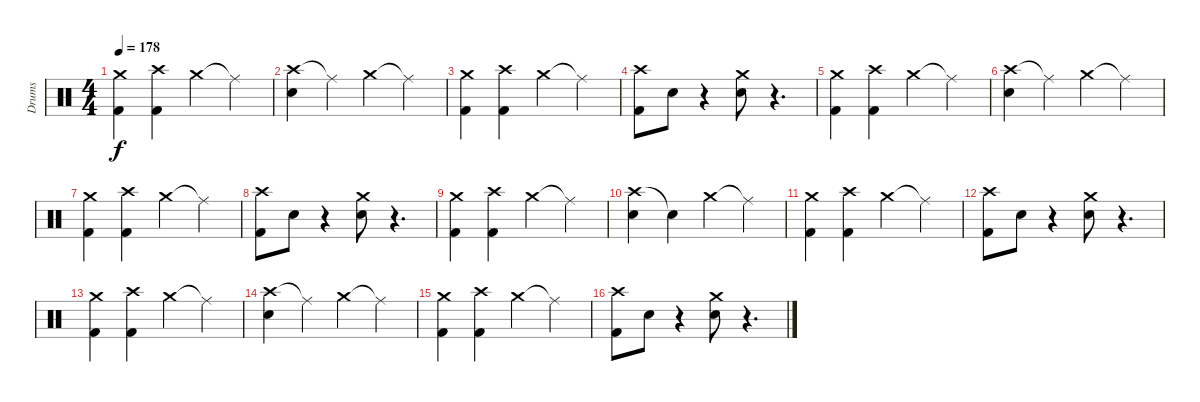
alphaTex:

\track ("Drums" "Drums") {instrument percussion}
\staff {score}
\articulation defaults
\ts (4 4)
\section ("" "")
\tempo 178
\clef neutral
\ks c
("Crash medium (hit)" "Kick (hit) 2").4{dy f} ("Crash high (hit)" "Kick (hit) 2").4 "Crash medium (hit)".4 "Ride (middle)"{t}.4 |
("Crash high (hit)" "Electric Snare (hit)").4 "Ride (middle)"{t}.4 "Crash medium (hit)".4 "Ride (middle)"{t}.4 |
("Crash medium (hit)" "Kick (hit) 2").4 ("Crash high (hit)" "Kick (hit) 2").4 "Crash medium (hit)".4 "Ride (middle)"{t}.4 |
("Crash high (hit)" "Kick (hit) 2").8 "Electric Snare (hit)".8 r.4 ("Crash medium (hit)" "Electric Snare (hit)").8 r.4{d} |
("Crash medium (hit)" "Kick (hit) 2").4 ("Crash high (hit)" "Kick (hit) 2").4 "Crash medium (hit)".4 "Ride (middle)"{t}.4 |
("Crash high (hit)" "Electric Snare (hit)").4 "Ride (middle)"{t}.4 "Crash medium (hit)".4 "Ride (middle)"{t}.4 |
("Crash medium (hit)" "Kick (hit) 2").4 ("Crash high (hit)" "Kick (hit) 2").4 "Crash medium (hit)".4 "Ride (middle)"{t}.4 |
("Crash high (hit)" "Kick (hit) 2").8 "Electric Snare (hit)".8 r.4 ("Crash medium (hit)" "Electric Snare (hit)").8 r.4{d} |
("Crash medium (hit)" "Kick (hit) 2").4 ("Crash high (hit)" "Kick (hit) 2").4 "Crash medium (hit)".4 "Ride (middle)"{t}.4 |
("Crash high (hit)" "Electric Snare (hit)").4 "Snare (hit)"{t}.4 "Crash medium (hit)".4 "Ride (middle)"{t}.4 |
("Crash medium (hit)" "Kick (hit) 2").4 ("Crash high (hit)" "Kick (hit) 2").4 "Crash medium (hit)".4 "Ride (middle)"{t}.4 |
("Crash high (hit)" "Kick (hit) 2").8 "Electric Snare (hit)".8 r.4 ("Crash medium (hit)" "Electric Snare (hit)").8 r.4{d} |
("Crash medium (hit)" "Kick (hit) 2").4 ("Crash high (hit)" "Kick (hit) 2").4 "Crash medium (hit)".4 "Ride (middle)"{t}.4 |
("Crash high (hit)" "Electric Snare (hit)").4 "Ride (middle)"{t}.4 "Crash medium (hit)".4 "Ride (middle)"{t}.4 |
("Crash medium (hit)" "Kick (hit) 2").4 ("Crash high (hit)" "Kick (hit) 2").4 "Crash medium (hit)".4 "Ride (middle)"{t}.4 |
("Crash high (hit)" "Kick (hit) 2").8 "Electric Snare (hit)".8 r.4 ("Crash medium (hit)" "Electric Snare (hit)").8 r.4{d}
